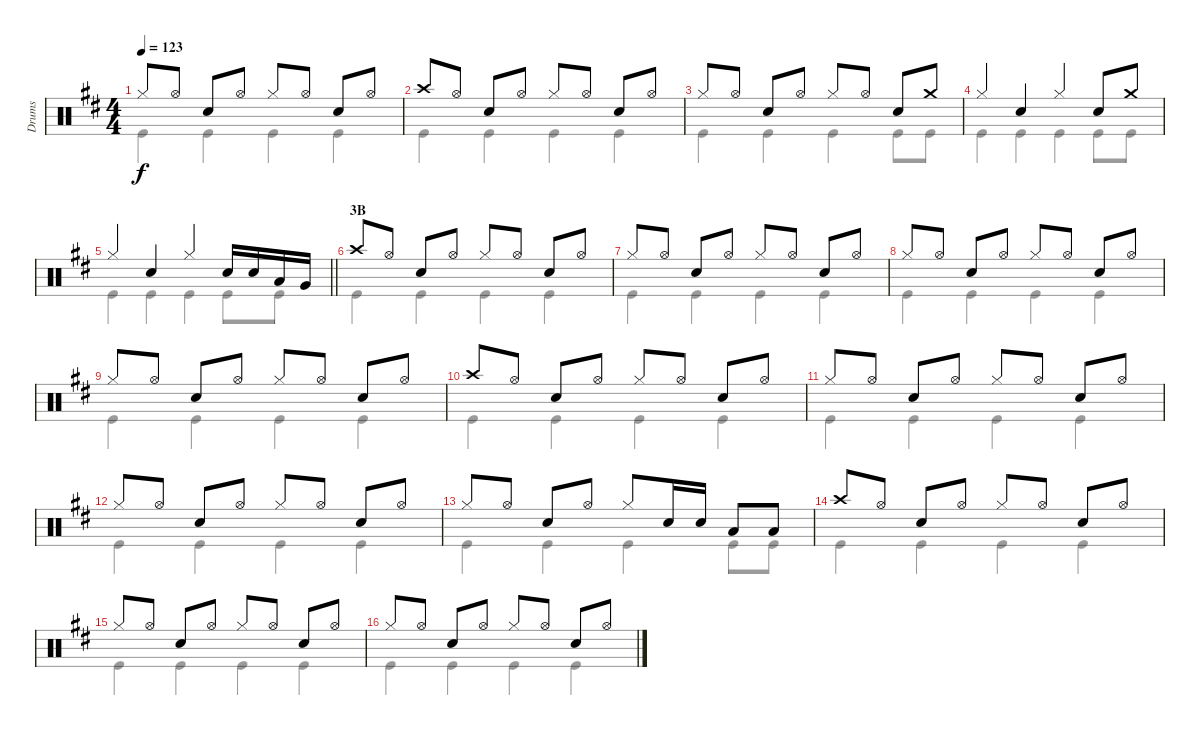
\track ("Drums" "Drums") {instrument percussion}
\staff {score}
\articulation defaults
\voice
\ts (4 4)
\tempo 123
\clef neutral
\ks d "Hi-Hat (closed)".8{dy f} "Hi-Hat (open)".8 "Snare (hit) 2".8 "Hi-Hat (open)".8 "Hi-Hat (closed)".8 "Hi-Hat (open)".8 "Snare (hit) 2".8 "Hi-Hat (open)".8
|
"Crash high (hit)".8 "Hi-Hat (open)".8 "Snare (hit) 2".8 "Hi-Hat (open)".8 "Hi-Hat (closed)".8 "Hi-Hat (open)".8 "Snare (hit) 2".8 "Hi-Hat (open)".8 |
"Hi-Hat (closed)".8 "Hi-Hat (open)".8 "Snare (hit) 2".8 "Hi-Hat (open)".8 "Hi-Hat (closed)".8 "Hi-Hat (open)".8 "Snare (hit) 2".8 "Crash medium (hit)".8 |
"Hi-Hat (closed)".4 "Snare (hit) 2".4 "Hi-Hat (closed)".4 "Snare (hit) 2".8 "Crash medium (hit)".8 |
\barLineRight lightlight "Hi-Hat (closed)".4 "Snare (hit) 2".4 "Hi-Hat (closed)".4 "Snare (hit) 2".16 "Snare (hit) 2".16 "Low Tom (hit)".16 "Very Low Tom (hit)".16
|
\section ("" "3B")
"Crash high (hit)".8 "Hi-Hat (open)".8 "Snare (hit) 2".8 "Hi-Hat (open)".8 "Hi-Hat (closed)".8 "Hi-Hat (open)".8 "Snare (hit) 2".8 "Hi-Hat (open)".8 |
"Hi-Hat (closed)".8 "Hi-Hat (open)".8 "Snare (hit) 2".8 "Hi-Hat (open)".8 "Hi-Hat (closed)".8 "Hi-Hat (open)".8 "Snare (hit) 2".8 "Hi-Hat (open)".8 |
"Hi-Hat (closed)".8 "Hi-Hat (open)".8 "Snare (hit) 2".8 "Hi-Hat (open)".8 "Hi-Hat (closed)".8 "Hi-Hat (open)".8 "Snare (hit) 2".8 "Hi-Hat (open)".8 |
"Hi-Hat (closed)".8 "Hi-Hat (open)".8 "Snare (hit) 2".8 "Hi-Hat (open)".8 "Hi-Hat (closed)".8 "Hi-Hat (open)".8 "Snare (hit) 2".8 "Hi-Hat (open)".8 |
"Crash high (hit)".8 "Hi-Hat (open)".8 "Snare (hit) 2".8 "Hi-Hat (open)".8 "Hi-Hat (closed)".8 "Hi-Hat (open)".8 "Snare (hit) 2".8 "Hi-Hat (open)".8 |
"Hi-Hat (closed)".8 "Hi-Hat (open)".8 "Snare (hit) 2".8 "Hi-Hat (open)".8 "Hi-Hat (closed)".8 "Hi-Hat (open)".8 "Snare (hit) 2".8 "Hi-Hat (open)".8 |
"Hi-Hat (closed)".8 "Hi-Hat (open)".8 "Snare (hit) 2".8 "Hi-Hat (open)".8 "Hi-Hat (closed)".8 "Hi-Hat (open)".8 "Snare (hit) 2".8 "Hi-Hat (open)".8 |
"Hi-Hat (closed)".8 "Hi-Hat (open)".8 "Snare (hit) 2".8 "Hi-Hat (open)".8 "Hi-Hat (closed)".8 "Snare (hit) 2".16 "Snare (hit) 2".16 "Low Tom (hit)".8 "Low Tom (hit)".8 |
"Crash high (hit)".8 "Hi-Hat (open)".8 "Snare (hit) 2".8 "Hi-Hat (open)".8 "Hi-Hat (closed)".8 "Hi-Hat (open)".8 "Snare (hit) 2".8 "Hi-Hat (open)".8 |
"Hi-Hat (closed)".8 "Hi-Hat (open)".8 "Snare (hit) 2".8 "Hi-Hat (open)".8 "Hi-Hat (closed)".8 "Hi-Hat (open)".8 "Snare (hit) 2".8 "Hi-Hat (open)".8 |
"Hi-Hat (closed)".8 "Hi-Hat (open)".8 "Snare (hit) 2".8 "Hi-Hat (open)".8 "Hi-Hat (closed)".8 "Hi-Hat (open)".8 "Snare (hit) 2".8 "Hi-Hat (open)".8
\voice
\clef neutral
\ottava regular
\simile none
\ks d "Kick (hit)".4{dy f} "Kick (hit)".4 "Kick (hit)".4 "Kick (hit)".4
|
"Kick (hit)".4 "Kick (hit)".4 "Kick (hit)".4 "Kick (hit)".4 |
"Kick (hit)".4 "Kick (hit)".4 "Kick (hit)".4 "Kick (hit)".8 "Kick (hit)".8 |
"Kick (hit)".4 "Kick (hit)".4 "Kick (hit)".4 "Kick (hit)".8 "Kick (hit)".8 |
\barLineRight lightlight "Kick (hit)".4 "Kick (hit)".4 "Kick (hit)".4 "Kick (hit)".8 "Kick (hit)".8
|
"Kick (hit)".4 "Kick (hit)".4 "Kick (hit)".4 "Kick (hit)".4 |
"Kick (hit)".4 "Kick (hit)".4 "Kick (hit)".4 "Kick (hit)".4 |
"Kick (hit)".4 "Kick (hit)".4 "Kick (hit)".4 "Kick (hit)".4 |
"Kick (hit)".4 "Kick (hit)".4 "Kick (hit)".4 "Kick (hit)".4 |
"Kick (hit)".4 "Kick (hit)".4 "Kick (hit)".4 "Kick (hit)".4 |
"Kick (hit)".4 "Kick (hit)".4 "Kick (hit)".4 "Kick (hit)".4 |
"Kick (hit)".4 "Kick (hit)".4 "Kick (hit)".4 "Kick (hit)".4 |
"Kick (hit)".4 "Kick (hit)".4 "Kick (hit)".4 "Kick (hit)".8 "Kick (hit)".8 |
"Kick (hit)".4 "Kick (hit)".4 "Kick (hit)".4 "Kick (hit)".4 |
"Kick (hit)".4 "Kick (hit)".4 "Kick (hit)".4 "Kick (hit)".4 |
"Kick (hit)".4 "Kick (hit)".4 "Kick (hit)".4 "Kick (hit)".4
